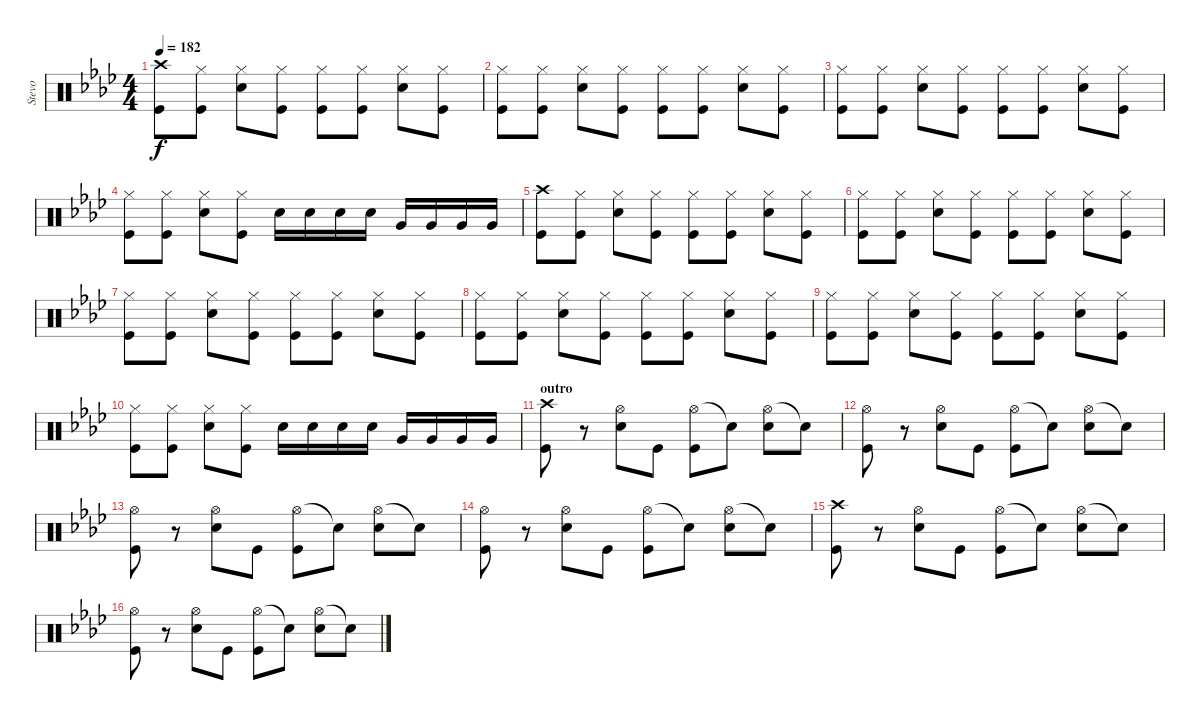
\track ("Stevo" "Stevo") {instrument percussion}
\staff {score}
\articulation defaults
\ts (4 4)
\tempo 182
\clef neutral
\ks ab
("Crash high (hit)" "Kick (hit)").8{dy f} ("Hi-Hat (closed)" "Kick (hit)").8 ("Hi-Hat (closed)" "Snare (hit) 2").8 ("Hi-Hat (closed)" "Kick (hit)").8 ("Hi-Hat (closed)" "Kick (hit)").8 ("Hi-Hat (closed)" "Kick (hit)").8 ("Hi-Hat (closed)" "Snare (hit) 2").8 ("Hi-Hat (closed)" "Kick (hit)").8 |
("Hi-Hat (closed)" "Kick (hit)").8 ("Hi-Hat (closed)" "Kick (hit)").8 ("Hi-Hat (closed)" "Snare (hit) 2").8 ("Hi-Hat (closed)" "Kick (hit)").8 ("Hi-Hat (closed)" "Kick (hit)").8 ("Hi-Hat (closed)" "Kick (hit)").8 ("Hi-Hat (closed)" "Snare (hit) 2").8 ("Hi-Hat (closed)" "Kick (hit)").8 |
("Hi-Hat (closed)" "Kick (hit)").8 ("Hi-Hat (closed)" "Kick (hit)").8 ("Hi-Hat (closed)" "Snare (hit) 2").8 ("Hi-Hat (closed)" "Kick (hit)").8 ("Hi-Hat (closed)" "Kick (hit)").8 ("Hi-Hat (closed)" "Kick (hit)").8 ("Hi-Hat (closed)" "Snare (hit) 2").8 ("Hi-Hat (closed)" "Kick (hit)").8 |
("Hi-Hat (closed)" "Kick (hit)").8 ("Hi-Hat (closed)" "Kick (hit)").8 ("Hi-Hat (closed)" "Snare (hit) 2").8 ("Hi-Hat (closed)" "Kick (hit)").8 "Snare (hit) 2".16 "Snare (hit) 2".16 "Snare (hit) 2".16 "Snare (hit) 2".16 "Very Low Tom (hit)".16 "Very Low Tom (hit)".16 "Very Low Tom (hit)".16 "Very Low Tom (hit)".16 |
("Crash high (hit)" "Kick (hit)").8 ("Hi-Hat (closed)" "Kick (hit)").8 ("Hi-Hat (closed)" "Snare (hit) 2").8 ("Hi-Hat (closed)" "Kick (hit)").8 ("Hi-Hat (closed)" "Kick (hit)").8 ("Hi-Hat (closed)" "Kick (hit)").8 ("Hi-Hat (closed)" "Snare (hit) 2").8 ("Hi-Hat (closed)" "Kick (hit)").8 |
("Hi-Hat (closed)" "Kick (hit)").8 ("Hi-Hat (closed)" "Kick (hit)").8 ("Hi-Hat (closed)" "Snare (hit) 2").8 ("Hi-Hat (closed)" "Kick (hit)").8 ("Hi-Hat (closed)" "Kick (hit)").8 ("Hi-Hat (closed)" "Kick (hit)").8 ("Hi-Hat (closed)" "Snare (hit) 2").8 ("Hi-Hat (closed)" "Kick (hit)").8 |
("Hi-Hat (closed)" "Kick (hit)").8 ("Hi-Hat (closed)" "Kick (hit)").8 ("Hi-Hat (closed)" "Snare (hit) 2").8 ("Hi-Hat (closed)" "Kick (hit)").8 ("Hi-Hat (closed)" "Kick (hit)").8 ("Hi-Hat (closed)" "Kick (hit)").8 ("Hi-Hat (closed)" "Snare (hit) 2").8 ("Hi-Hat (closed)" "Kick (hit)").8 |
("Hi-Hat (closed)" "Kick (hit)").8 ("Hi-Hat (closed)" "Kick (hit)").8 ("Hi-Hat (closed)" "Snare (hit) 2").8 ("Hi-Hat (closed)" "Kick (hit)").8 ("Hi-Hat (closed)" "Kick (hit)").8 ("Hi-Hat (closed)" "Kick (hit)").8 ("Hi-Hat (closed)" "Snare (hit) 2").8 ("Hi-Hat (closed)" "Kick (hit)").8 |
("Hi-Hat (closed)" "Kick (hit)").8 ("Hi-Hat (closed)" "Kick (hit)").8 ("Hi-Hat (closed)" "Snare (hit) 2").8 ("Hi-Hat (closed)" "Kick (hit)").8 ("Hi-Hat (closed)" "Kick (hit)").8 ("Hi-Hat (closed)" "Kick (hit)").8 ("Hi-Hat (closed)" "Snare (hit) 2").8 ("Hi-Hat (closed)" "Kick (hit)").8 |
("Hi-Hat (closed)" "Kick (hit)").8 ("Hi-Hat (closed)" "Kick (hit)").8 ("Hi-Hat (closed)" "Snare (hit) 2").8 ("Hi-Hat (closed)" "Kick (hit)").8 "Snare (hit) 2".16 "Snare (hit) 2".16 "Snare (hit) 2".16 "Snare (hit) 2".16 "Very Low Tom (hit)".16 "Very Low Tom (hit)".16 "Very Low Tom (hit)".16 "Very Low Tom (hit)".16 |
\section ("" "outro")
("Crash high (hit)" "Kick (hit)").8 r.8 ("Hi-Hat (open)" "Snare (hit) 2").8 "Kick (hit)".8 ("Hi-Hat (open)" "Kick (hit)").8 "Snare (hit)"{t}.8 ("Hi-Hat (open)" "Snare (hit) 2").8 "Snare (hit)"{t}.8 |
("Hi-Hat (open)" "Kick (hit)").8 r.8 ("Hi-Hat (open)" "Snare (hit) 2").8 "Kick (hit)".8 ("Hi-Hat (open)" "Kick (hit)").8 "Snare (hit)"{t}.8 ("Hi-Hat (open)" "Snare (hit) 2").8 "Snare (hit)"{t}.8 |
("Hi-Hat (open)" "Kick (hit)").8 r.8 ("Hi-Hat (open)" "Snare (hit) 2").8 "Kick (hit)".8 ("Hi-Hat (open)" "Kick (hit)").8 "Snare (hit)"{t}.8 ("Hi-Hat (open)" "Snare (hit) 2").8 "Snare (hit)"{t}.8 |
("Hi-Hat (open)" "Kick (hit)").8 r.8 ("Hi-Hat (open)" "Snare (hit) 2").8 "Kick (hit)".8 ("Hi-Hat (open)" "Kick (hit)").8 "Snare (hit)"{t}.8 ("Hi-Hat (open)" "Snare (hit) 2").8 "Snare (hit)"{t}.8 |
("Crash high (hit)" "Kick (hit)").8 r.8 ("Hi-Hat (open)" "Snare (hit) 2").8 "Kick (hit)".8 ("Hi-Hat (open)" "Kick (hit)").8 "Snare (hit)"{t}.8 ("Hi-Hat (open)" "Snare (hit) 2").8 "Snare (hit)"{t}.8 |
("Hi-Hat (open)" "Kick (hit)").8 r.8 ("Hi-Hat (open)" "Snare (hit) 2").8 "Kick (hit)".8 ("Hi-Hat (open)" "Kick (hit)").8 "Snare (hit)"{t}.8 ("Hi-Hat (open)" "Snare (hit) 2").8 "Snare (hit)"{t}.8
